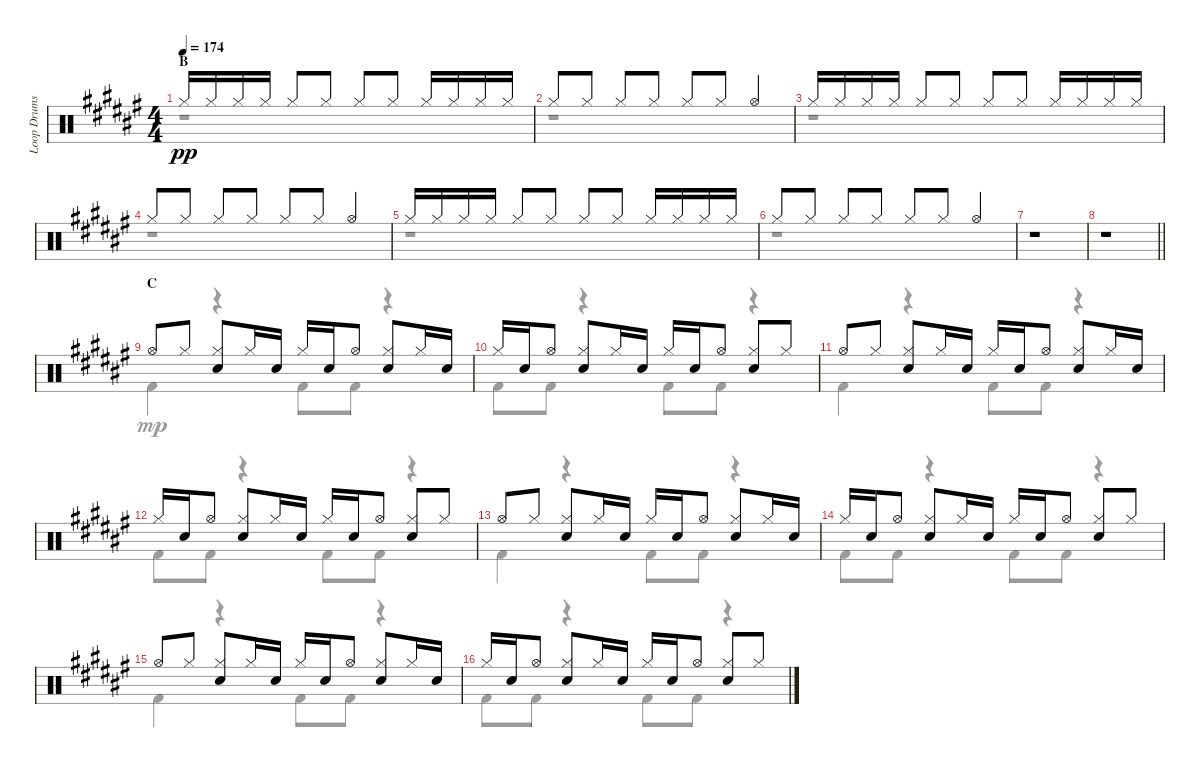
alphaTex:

\track ("Loop Drums" "Loop Drums") {instrument percussion}
\staff {score}
\articulation defaults
\voice
\ts (4 4)
\section ("" "B")
\tempo 174
\clef neutral
\ks f# "Hi-Hat (closed)".16{dy pp} "Hi-Hat (closed)".16 "Hi-Hat (closed)".16 "Hi-Hat (closed)".16 "Hi-Hat (closed)".8 "Hi-Hat (closed)".8 "Hi-Hat (closed)".8 "Hi-Hat (closed)".8 "Hi-Hat (closed)".16 "Hi-Hat (closed)".16 "Hi-Hat (closed)".16 "Hi-Hat (closed)".16
|
"Hi-Hat (closed)".8 "Hi-Hat (closed)".8 "Hi-Hat (closed)".8 "Hi-Hat (closed)".8 "Hi-Hat (closed)".8 "Hi-Hat (closed)".8 "Hi-Hat (open)".4 |
"Hi-Hat (closed)".16 "Hi-Hat (closed)".16 "Hi-Hat (closed)".16 "Hi-Hat (closed)".16 "Hi-Hat (closed)".8 "Hi-Hat (closed)".8 "Hi-Hat (closed)".8 "Hi-Hat (closed)".8 "Hi-Hat (closed)".16 "Hi-Hat (closed)".16 "Hi-Hat (closed)".16 "Hi-Hat (closed)".16 |
"Hi-Hat (closed)".8 "Hi-Hat (closed)".8 "Hi-Hat (closed)".8 "Hi-Hat (closed)".8 "Hi-Hat (closed)".8 "Hi-Hat (closed)".8 "Hi-Hat (open)".4 |
"Hi-Hat (closed)".16 "Hi-Hat (closed)".16 "Hi-Hat (closed)".16 "Hi-Hat (closed)".16 "Hi-Hat (closed)".8 "Hi-Hat (closed)".8 "Hi-Hat (closed)".8 "Hi-Hat (closed)".8 "Hi-Hat (closed)".16 "Hi-Hat (closed)".16 "Hi-Hat (closed)".16 "Hi-Hat (closed)".16 |
"Hi-Hat (closed)".8 "Hi-Hat (closed)".8 "Hi-Hat (closed)".8 "Hi-Hat (closed)".8 "Hi-Hat (closed)".8 "Hi-Hat (closed)".8 "Hi-Hat (open)".4 |
r.1 |
\barLineRight lightlight
r.1 |
\section ("" "C")
"Hi-Hat (open)".8 "Hi-Hat (closed)".8 ("Hi-Hat (closed)" "Electric Snare (hit)").8 "Hi-Hat (closed)".16 "Electric Snare (hit)".16 "Hi-Hat (closed)".16 "Electric Snare (hit)".16 "Hi-Hat (open)".8 ("Hi-Hat (closed)" "Electric Snare (hit)").8 "Hi-Hat (closed)".16 "Electric Snare (hit)".16 |
"Hi-Hat (closed)".16 "Electric Snare (hit)".16 "Hi-Hat (open)".8 ("Hi-Hat (closed)" "Electric Snare (hit)").8 "Hi-Hat (closed)".16 "Electric Snare (hit)".16 "Hi-Hat (closed)".16 "Electric Snare (hit)".16 "Hi-Hat (open)".8 ("Hi-Hat (closed)" "Electric Snare (hit)").8 "Hi-Hat (closed)".8 |
"Hi-Hat (open)".8 "Hi-Hat (closed)".8 ("Hi-Hat (closed)" "Electric Snare (hit)").8 "Hi-Hat (closed)".16 "Electric Snare (hit)".16 "Hi-Hat (closed)".16 "Electric Snare (hit)".16 "Hi-Hat (open)".8 ("Hi-Hat (closed)" "Electric Snare (hit)").8 "Hi-Hat (closed)".16 "Electric Snare (hit)".16 |
"Hi-Hat (closed)".16 "Electric Snare (hit)".16 "Hi-Hat (open)".8 ("Hi-Hat (closed)" "Electric Snare (hit)").8 "Hi-Hat (closed)".16 "Electric Snare (hit)".16 "Hi-Hat (closed)".16 "Electric Snare (hit)".16 "Hi-Hat (open)".8 ("Hi-Hat (closed)" "Electric Snare (hit)").8 "Hi-Hat (closed)".8 |
"Hi-Hat (open)".8 "Hi-Hat (closed)".8 ("Hi-Hat (closed)" "Electric Snare (hit)").8 "Hi-Hat (closed)".16 "Electric Snare (hit)".16 "Hi-Hat (closed)".16 "Electric Snare (hit)".16 "Hi-Hat (open)".8 ("Hi-Hat (closed)" "Electric Snare (hit)").8 "Hi-Hat (closed)".16 "Electric Snare (hit)".16 |
"Hi-Hat (closed)".16 "Electric Snare (hit)".16 "Hi-Hat (open)".8 ("Hi-Hat (closed)" "Electric Snare (hit)").8 "Hi-Hat (closed)".16 "Electric Snare (hit)".16 "Hi-Hat (closed)".16 "Electric Snare (hit)".16 "Hi-Hat (open)".8 ("Hi-Hat (closed)" "Electric Snare (hit)").8 "Hi-Hat (closed)".8 |
"Hi-Hat (open)".8 "Hi-Hat (closed)".8 ("Hi-Hat (closed)" "Electric Snare (hit)").8 "Hi-Hat (closed)".16 "Electric Snare (hit)".16 "Hi-Hat (closed)".16 "Electric Snare (hit)".16 "Hi-Hat (open)".8 ("Hi-Hat (closed)" "Electric Snare (hit)").8 "Hi-Hat (closed)".16 "Electric Snare (hit)".16 |
"Hi-Hat (closed)".16 "Electric Snare (hit)".16 "Hi-Hat (open)".8 ("Hi-Hat (closed)" "Electric Snare (hit)").8 "Hi-Hat (closed)".16 "Electric Snare (hit)".16 "Hi-Hat (closed)".16 "Electric Snare (hit)".16 "Hi-Hat (open)".8 ("Hi-Hat (closed)" "Electric Snare (hit)").8 "Hi-Hat (closed)".8
\voice
\clef neutral
\ottava regular
\simile none
\ks f#
r.1{dy mp} |
r.1 |
r.1 |
r.1 |
r.1 |
r.1 |
r.1 |
\barLineRight lightlight
r.1 |
"Kick (hit) 2".4 r.4 "Kick (hit) 2".8 "Kick (hit) 2".8 r.4 |
"Kick (hit) 2".8 "Kick (hit) 2".8 r.4 "Kick (hit) 2".8 "Kick (hit) 2".8 r.4 |
"Kick (hit) 2".4 r.4 "Kick (hit) 2".8 "Kick (hit) 2".8 r.4 |
"Kick (hit) 2".8 "Kick (hit) 2".8 r.4 "Kick (hit) 2".8 "Kick (hit) 2".8 r.4 |
"Kick (hit) 2".4 r.4 "Kick (hit) 2".8 "Kick (hit) 2".8 r.4 |
"Kick (hit) 2".8 "Kick (hit) 2".8 r.4 "Kick (hit) 2".8 "Kick (hit) 2".8 r.4 |
"Kick (hit) 2".4 r.4 "Kick (hit) 2".8 "Kick (hit) 2".8 r.4 |
"Kick (hit) 2".8 "Kick (hit) 2".8 r.4 "Kick (hit) 2".8 "Kick (hit) 2".8 r.4
